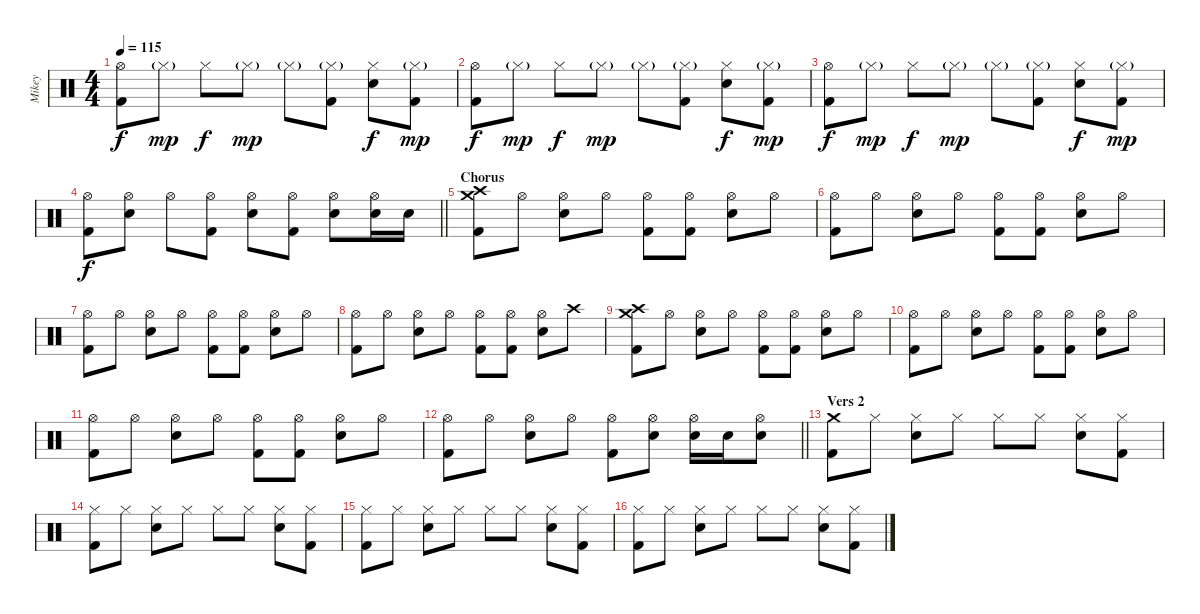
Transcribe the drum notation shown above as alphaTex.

\track ("Mikey" "Mikey") {instrument percussion}
\staff {score}
\articulation defaults
\ts (4 4)
\tempo 115
\clef neutral
\ks c
("Hi-Hat (open)" "Kick (hit) 2").8{dy f} "Hi-Hat (closed)"{g}.8{dy mp} "Hi-Hat (closed)".8{dy f} "Hi-Hat (closed)"{g}.8{dy mp} "Hi-Hat (closed)"{g}.8 ("Hi-Hat (closed)"{g} "Kick (hit) 2").8 ("Hi-Hat (closed)" "Snare (hit) 2").8{dy f} ("Hi-Hat (closed)"{g} "Kick (hit) 2").8{dy mp} |
("Hi-Hat (open)" "Kick (hit) 2").8{dy f} "Hi-Hat (closed)"{g}.8{dy mp} "Hi-Hat (closed)".8{dy f} "Hi-Hat (closed)"{g}.8{dy mp} "Hi-Hat (closed)"{g}.8 ("Hi-Hat (closed)"{g} "Kick (hit) 2").8 ("Hi-Hat (closed)" "Snare (hit) 2").8{dy f} ("Hi-Hat (closed)"{g} "Kick (hit) 2").8{dy mp} |
("Hi-Hat (open)" "Kick (hit) 2").8{dy f} "Hi-Hat (closed)"{g}.8{dy mp} "Hi-Hat (closed)".8{dy f} "Hi-Hat (closed)"{g}.8{dy mp} "Hi-Hat (closed)"{g}.8 ("Hi-Hat (closed)"{g} "Kick (hit) 2").8 ("Hi-Hat (closed)" "Snare (hit) 2").8{dy f} ("Hi-Hat (closed)"{g} "Kick (hit) 2").8{dy mp} |
\barLineRight lightlight
("Hi-Hat (open)" "Kick (hit) 2").8{dy f} ("Hi-Hat (open)" "Snare (hit) 2").8 "Hi-Hat (open)".8 ("Hi-Hat (open)" "Kick (hit) 2").8 ("Hi-Hat (open)" "Snare (hit) 2").8 ("Hi-Hat (open)" "Kick (hit) 2").8 ("Hi-Hat (open)" "Snare (hit) 2").8 ("Hi-Hat (open)" "Snare (hit) 2").16 "Snare (hit) 2".16 |
\section ("" "Chorus")
("Crash high (hit)" "Crash medium (hit)" "Kick (hit) 2").8 "Hi-Hat (open)".8 ("Hi-Hat (open)" "Snare (hit) 2").8 "Hi-Hat (open)".8 ("Hi-Hat (open)" "Kick (hit) 2").8 ("Hi-Hat (open)" "Kick (hit) 2").8 ("Hi-Hat (open)" "Snare (hit) 2").8 "Hi-Hat (open)".8 |
("Hi-Hat (open)" "Kick (hit) 2").8 "Hi-Hat (open)".8 ("Hi-Hat (open)" "Snare (hit) 2").8 "Hi-Hat (open)".8 ("Hi-Hat (open)" "Kick (hit) 2").8 ("Hi-Hat (open)" "Kick (hit) 2").8 ("Hi-Hat (open)" "Snare (hit) 2").8 "Hi-Hat (open)".8 |
("Hi-Hat (open)" "Kick (hit) 2").8 "Hi-Hat (open)".8 ("Hi-Hat (open)" "Snare (hit) 2").8 "Hi-Hat (open)".8 ("Hi-Hat (open)" "Kick (hit) 2").8 ("Hi-Hat (open)" "Kick (hit) 2").8 ("Hi-Hat (open)" "Snare (hit) 2").8 "Hi-Hat (open)".8 |
("Hi-Hat (open)" "Kick (hit) 2").8 "Hi-Hat (open)".8 ("Hi-Hat (open)" "Snare (hit) 2").8 "Hi-Hat (open)".8 ("Hi-Hat (open)" "Kick (hit) 2").8 ("Hi-Hat (open)" "Kick (hit) 2").8 ("Hi-Hat (open)" "Snare (hit) 2").8 "Crash high (hit)".8 |
("Crash high (hit)" "Crash medium (hit)" "Kick (hit) 2").8 "Hi-Hat (open)".8 ("Hi-Hat (open)" "Snare (hit) 2").8 "Hi-Hat (open)".8 ("Hi-Hat (open)" "Kick (hit) 2").8 ("Hi-Hat (open)" "Kick (hit) 2").8 ("Hi-Hat (open)" "Snare (hit) 2").8 "Hi-Hat (open)".8 |
("Hi-Hat (open)" "Kick (hit) 2").8 "Hi-Hat (open)".8 ("Hi-Hat (open)" "Snare (hit) 2").8 "Hi-Hat (open)".8 ("Hi-Hat (open)" "Kick (hit) 2").8 ("Hi-Hat (open)" "Kick (hit) 2").8 ("Hi-Hat (open)" "Snare (hit) 2").8 "Hi-Hat (open)".8 |
("Hi-Hat (open)" "Kick (hit) 2").8 "Hi-Hat (open)".8 ("Hi-Hat (open)" "Snare (hit) 2").8 "Hi-Hat (open)".8 ("Hi-Hat (open)" "Kick (hit) 2").8 ("Hi-Hat (open)" "Kick (hit) 2").8 ("Hi-Hat (open)" "Snare (hit) 2").8 "Hi-Hat (open)".8 |
\barLineRight lightlight
("Hi-Hat (open)" "Kick (hit) 2").8 "Hi-Hat (open)".8 ("Hi-Hat (open)" "Snare (hit) 2").8 "Hi-Hat (open)".8 ("Hi-Hat (open)" "Kick (hit) 2").8 ("Hi-Hat (open)" "Snare (hit) 2").8 ("Hi-Hat (open)" "Snare (hit) 2").16 "Snare (hit) 2".16 ("Hi-Hat (open)" "Snare (hit) 2").8 |
\section ("" "Vers 2")
("Crash medium (hit)" "Kick (hit) 2").8 "Hi-Hat (closed)".8 ("Hi-Hat (closed)" "Snare (hit) 2").8 "Hi-Hat (closed)".8 "Hi-Hat (closed)".8 "Hi-Hat (closed)".8 ("Hi-Hat (closed)" "Snare (hit) 2").8 ("Hi-Hat (closed)" "Kick (hit) 2").8 |
("Hi-Hat (closed)" "Kick (hit) 2").8 "Hi-Hat (closed)".8 ("Hi-Hat (closed)" "Snare (hit) 2").8 "Hi-Hat (closed)".8 "Hi-Hat (closed)".8 "Hi-Hat (closed)".8 ("Hi-Hat (closed)" "Snare (hit) 2").8 ("Hi-Hat (closed)" "Kick (hit) 2").8 |
("Hi-Hat (closed)" "Kick (hit) 2").8 "Hi-Hat (closed)".8 ("Hi-Hat (closed)" "Snare (hit) 2").8 "Hi-Hat (closed)".8 "Hi-Hat (closed)".8 "Hi-Hat (closed)".8 ("Hi-Hat (closed)" "Snare (hit) 2").8 ("Hi-Hat (closed)" "Kick (hit) 2").8 |
("Hi-Hat (closed)" "Kick (hit) 2").8 "Hi-Hat (closed)".8 ("Hi-Hat (closed)" "Snare (hit) 2").8 "Hi-Hat (closed)".8 "Hi-Hat (closed)".8 "Hi-Hat (closed)".8 ("Hi-Hat (closed)" "Snare (hit) 2").8 ("Hi-Hat (closed)" "Kick (hit) 2").8
